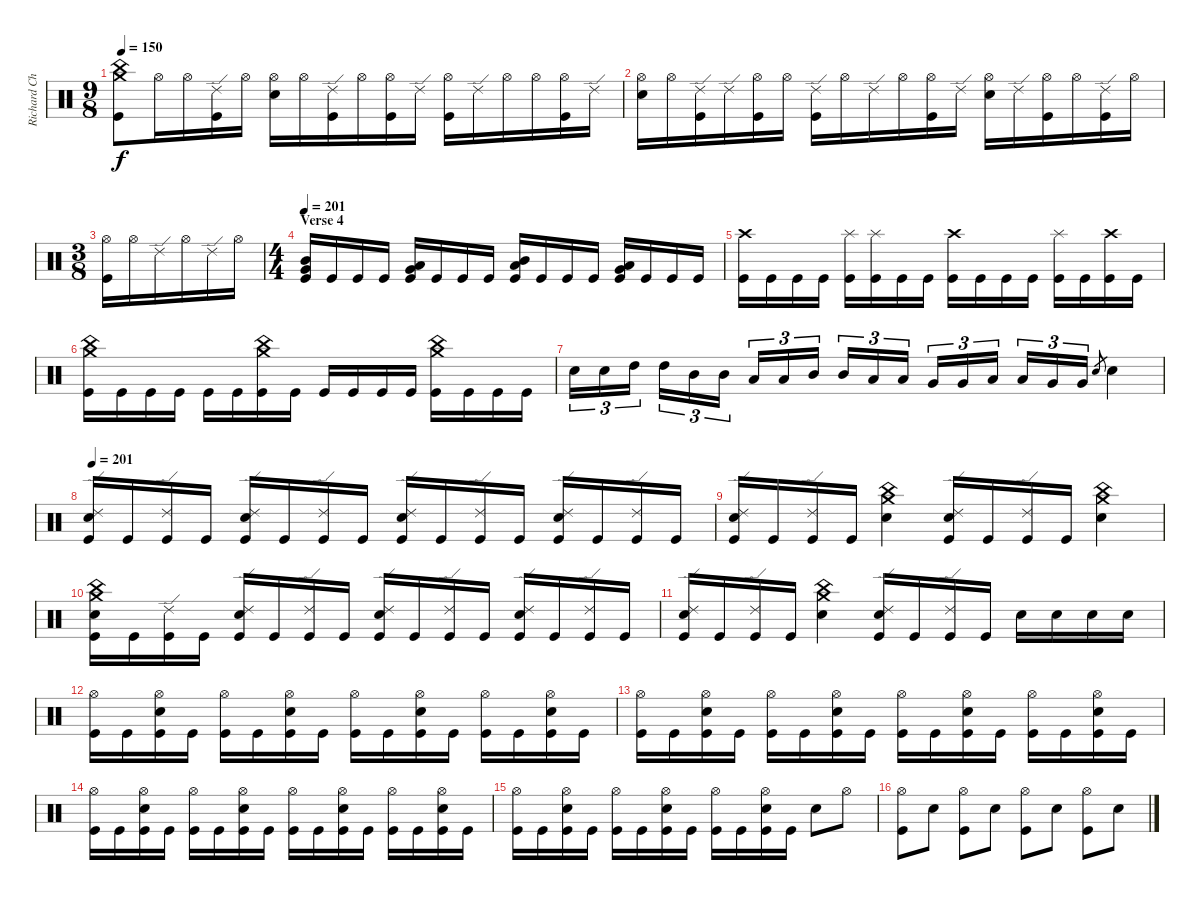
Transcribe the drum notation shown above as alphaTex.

\track ("Richard Christy " "Richard Ch") {instrument percussion}
\staff {score}
\articulation defaults
\ts (9 8)
\tempo 150
\clef neutral
\ks c
("Crash medium (hit)" "China (hit)" "Kick (hit)").8{dy f} "Hi-Hat (open)".16 "Hi-Hat (open)".16 ("Ride (edge) 2" "Kick (hit)").16 "Hi-Hat (open)".16 ("Hi-Hat (open)" "Electric Snare (hit)").16 "Hi-Hat (open)".16 ("Ride (edge) 2" "Kick (hit)").16 "Hi-Hat (open)".16 ("Hi-Hat (open)" "Kick (hit)").16 "Ride (edge) 2".16 ("Hi-Hat (open)" "Kick (hit)").16 "Ride (edge) 2".16 "Hi-Hat (open)".16 "Hi-Hat (open)".16 ("Hi-Hat (open)" "Kick (hit)").16 "Ride (edge) 2".16 |
("Hi-Hat (open)" "Electric Snare (hit)").16 "Hi-Hat (open)".16 ("Ride (edge) 2" "Kick (hit)").16 "Ride (edge) 2".16 ("Hi-Hat (open)" "Kick (hit)").16 "Hi-Hat (open)".16 ("Ride (edge) 2" "Kick (hit)").16 "Hi-Hat (open)".16 "Ride (edge) 2".16 "Hi-Hat (open)".16 ("Hi-Hat (open)" "Kick (hit)").16 "Ride (edge) 2".16 ("Hi-Hat (open)" "Electric Snare (hit)").16 "Ride (edge) 2".16 ("Hi-Hat (open)" "Kick (hit)").16 "Hi-Hat (open)".16 ("Ride (edge) 2" "Kick (hit)").16 "Hi-Hat (open)".16 |
\ts (3 8)
("Hi-Hat (open)" "Kick (hit)").16 "Hi-Hat (open)".16 "Ride (edge) 2".16 "Hi-Hat (open)".16 "Ride (edge) 2".16 "Hi-Hat (open)".16 |
\ts (4 4)
\section ("" "Verse 4")
\tempo 201
("Mid Tom (hit)" "Very Low Tom (hit)" "Kick (hit)").16 "Kick (hit)".16 "Kick (hit)".16 "Kick (hit)".16 ("Low Tom (hit)" "Very Low Tom (hit)" "Kick (hit)").16 "Kick (hit)".16 "Kick (hit)".16 "Kick (hit)".16 ("Mid Tom (hit)" "Low Tom (hit)" "Kick (hit)").16 "Kick (hit)".16 "Kick (hit)".16 "Kick (hit)".16 ("Low Tom (hit)" "Very Low Tom (hit)" "Kick (hit)").16 "Kick (hit)".16 "Kick (hit)".16 "Kick (hit)".16 |
("Crash high (hit)" "Kick (hit)").16 "Kick (hit)".16 "Kick (hit)".16 "Kick (hit)".16 ("Splash (hit)" "Kick (hit)").16 ("Splash (hit)" "Kick (hit)").16 "Kick (hit)".16 "Kick (hit)".16 ("Crash high (hit)" "Kick (hit)").16 "Kick (hit)".16 "Kick (hit)".16 "Kick (hit)".16 ("Splash (hit)" "Kick (hit)").16 "Kick (hit)".16 ("Crash high (hit)" "Kick (hit)").16 "Kick (hit)".16 |
("Crash medium (hit)" "China (hit)" "Kick (hit)").16 "Kick (hit)".16 "Kick (hit)".16 "Kick (hit)".16 "Kick (hit)".16 "Kick (hit)".16 ("Crash medium (hit)" "China (hit)" "Kick (hit)").16 "Kick (hit)".16 "Kick (hit)".16 "Kick (hit)".16 "Kick (hit)".16 "Kick (hit)".16 ("Crash medium (hit)" "China (hit)" "Kick (hit)").16 "Kick (hit)".16 "Kick (hit)".16 "Kick (hit)".16 |
"Electric Snare (hit)".16{tu (3 2)} "Electric Snare (hit)".16{tu (3 2)} "High Tom (hit)".16{tu (3 2)} "High Tom (hit)".16{tu (3 2)} "Mid Tom (hit)".16{tu (3 2)} "Mid Tom (hit)".16{tu (3 2)} "Low Tom (hit)".16{tu (3 2)} "Low Tom (hit)".16{tu (3 2)} "Mid Tom (hit)".16{tu (3 2)} "Mid Tom (hit)".16{tu (3 2)} "Low Tom (hit)".16{tu (3 2)} "Low Tom (hit)".16{tu (3 2)} "Very Low Tom (hit)".16{tu (3 2)} "Very Low Tom (hit)".16{tu (3 2)} "Low Tom (hit)".16{tu (3 2)} "Low Tom (hit)".16{tu (3 2)} "Very Low Tom (hit)".16{tu (3 2)} "Very Low Tom (hit)".16{tu (3 2)} "Electric Snare (hit)".8{gr} "Electric Snare (hit)".4 |
\tempo 201
("Ride (edge) 2" "Electric Snare (hit)" "Kick (hit)").16 "Kick (hit)".16 ("Ride (edge) 2" "Kick (hit)").16 "Kick (hit)".16 ("Ride (edge) 2" "Electric Snare (hit)" "Kick (hit)").16 "Kick (hit)".16 ("Ride (edge) 2" "Kick (hit)").16 "Kick (hit)".16 ("Ride (edge) 2" "Electric Snare (hit)" "Kick (hit)").16 "Kick (hit)".16 ("Ride (edge) 2" "Kick (hit)").16 "Kick (hit)".16 ("Ride (edge) 2" "Electric Snare (hit)" "Kick (hit)").16 "Kick (hit)".16 ("Ride (edge) 2" "Kick (hit)").16 "Kick (hit)".16 |
("Ride (edge) 2" "Electric Snare (hit)" "Kick (hit)").16 "Kick (hit)".16 ("Ride (edge) 2" "Kick (hit)").16 "Kick (hit)".16 ("Crash medium (hit)" "China (hit)" "Electric Snare (hit)").4 ("Ride (edge) 2" "Electric Snare (hit)" "Kick (hit)").16 "Kick (hit)".16 ("Ride (edge) 2" "Kick (hit)").16 "Kick (hit)".16 ("Crash medium (hit)" "China (hit)" "Electric Snare (hit)").4 |
("Crash medium (hit)" "China (hit)" "Electric Snare (hit)" "Kick (hit)").16 "Kick (hit)".16 ("Ride (edge) 2" "Kick (hit)").16 "Kick (hit)".16 ("Ride (edge) 2" "Electric Snare (hit)" "Kick (hit)").16 "Kick (hit)".16 ("Ride (edge) 2" "Kick (hit)").16 "Kick (hit)".16 ("Ride (edge) 2" "Electric Snare (hit)" "Kick (hit)").16 "Kick (hit)".16 ("Ride (edge) 2" "Kick (hit)").16 "Kick (hit)".16 ("Ride (edge) 2" "Electric Snare (hit)" "Kick (hit)").16 "Kick (hit)".16 ("Ride (edge) 2" "Kick (hit)").16 "Kick (hit)".16 |
("Ride (edge) 2" "Electric Snare (hit)" "Kick (hit)").16 "Kick (hit)".16 ("Ride (edge) 2" "Kick (hit)").16 "Kick (hit)".16 ("Crash medium (hit)" "China (hit)" "Electric Snare (hit)").4 ("Ride (edge) 2" "Electric Snare (hit)" "Kick (hit)").16 "Kick (hit)".16 ("Ride (edge) 2" "Kick (hit)").16 "Kick (hit)".16 "Electric Snare (hit)".16 "Electric Snare (hit)".16 "Electric Snare (hit)".16 "Electric Snare (hit)".16 |
("Hi-Hat (open)" "Kick (hit)").16 "Kick (hit)".16 ("Hi-Hat (open)" "Electric Snare (hit)" "Kick (hit)").16 "Kick (hit)".16 ("Hi-Hat (open)" "Kick (hit)").16 "Kick (hit)".16 ("Hi-Hat (open)" "Electric Snare (hit)" "Kick (hit)").16 "Kick (hit)".16 ("Hi-Hat (open)" "Kick (hit)").16 "Kick (hit)".16 ("Hi-Hat (open)" "Electric Snare (hit)" "Kick (hit)").16 "Kick (hit)".16 ("Hi-Hat (open)" "Kick (hit)").16 "Kick (hit)".16 ("Hi-Hat (open)" "Electric Snare (hit)" "Kick (hit)").16 "Kick (hit)".16 |
("Hi-Hat (open)" "Kick (hit)").16 "Kick (hit)".16 ("Hi-Hat (open)" "Electric Snare (hit)" "Kick (hit)").16 "Kick (hit)".16 ("Hi-Hat (open)" "Kick (hit)").16 "Kick (hit)".16 ("Hi-Hat (open)" "Electric Snare (hit)" "Kick (hit)").16 "Kick (hit)".16 ("Hi-Hat (open)" "Kick (hit)").16 "Kick (hit)".16 ("Hi-Hat (open)" "Electric Snare (hit)" "Kick (hit)").16 "Kick (hit)".16 ("Hi-Hat (open)" "Kick (hit)").16 "Kick (hit)".16 ("Hi-Hat (open)" "Electric Snare (hit)" "Kick (hit)").16 "Kick (hit)".16 |
("Hi-Hat (open)" "Kick (hit)").16 "Kick (hit)".16 ("Hi-Hat (open)" "Electric Snare (hit)" "Kick (hit)").16 "Kick (hit)".16 ("Hi-Hat (open)" "Kick (hit)").16 "Kick (hit)".16 ("Hi-Hat (open)" "Electric Snare (hit)" "Kick (hit)").16 "Kick (hit)".16 ("Hi-Hat (open)" "Kick (hit)").16 "Kick (hit)".16 ("Hi-Hat (open)" "Electric Snare (hit)" "Kick (hit)").16 "Kick (hit)".16 ("Hi-Hat (open)" "Kick (hit)").16 "Kick (hit)".16 ("Hi-Hat (open)" "Electric Snare (hit)" "Kick (hit)").16 "Kick (hit)".16 |
("Hi-Hat (open)" "Kick (hit)").16 "Kick (hit)".16 ("Hi-Hat (open)" "Electric Snare (hit)" "Kick (hit)").16 "Kick (hit)".16 ("Hi-Hat (open)" "Kick (hit)").16 "Kick (hit)".16 ("Hi-Hat (open)" "Electric Snare (hit)" "Kick (hit)").16 "Kick (hit)".16 ("Hi-Hat (open)" "Kick (hit)").16 "Kick (hit)".16 ("Hi-Hat (open)" "Electric Snare (hit)" "Kick (hit)").16 "Kick (hit)".16 "Electric Snare (hit)".8 "Hi-Hat (open)".8 |
("Hi-Hat (open)" "Kick (hit)").8 "Electric Snare (hit)".8 ("Hi-Hat (open)" "Kick (hit)").8 "Electric Snare (hit)".8 ("Hi-Hat (open)" "Kick (hit)").8 "Electric Snare (hit)".8 ("Hi-Hat (open)" "Kick (hit)").8 "Electric Snare (hit)".8
